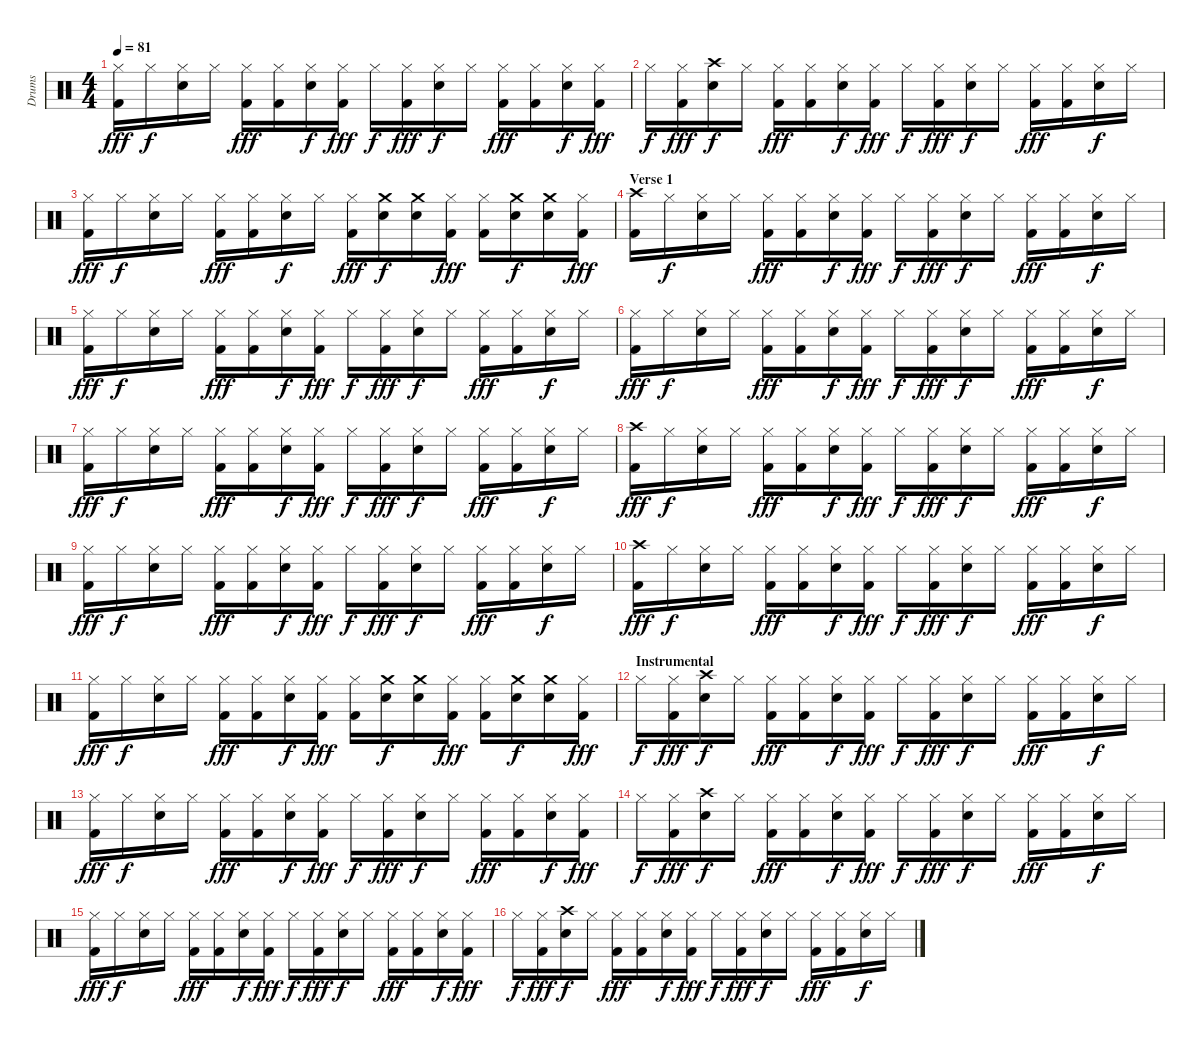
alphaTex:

\track ("Drums" "Drums") {instrument percussion}
\staff {score}
\articulation defaults
\ts (4 4)
\tempo 81
\clef neutral
\ks c
("Hi-Hat (closed)" "Kick (hit) 2").16{dy fff} "Hi-Hat (closed)".16{dy f} ("Hi-Hat (closed)" "Snare (hit) 2").16 "Hi-Hat (closed)".16 ("Hi-Hat (closed)" "Kick (hit) 2").16{dy fff} ("Hi-Hat (closed)" "Kick (hit) 2").16 ("Hi-Hat (closed)" "Snare (hit) 2").16{dy f} ("Hi-Hat (closed)" "Kick (hit) 2").16{dy fff} "Hi-Hat (closed)".16{dy f} ("Hi-Hat (closed)" "Kick (hit) 2").16{dy fff} ("Hi-Hat (closed)" "Snare (hit) 2").16{dy f} "Hi-Hat (closed)".16 ("Hi-Hat (closed)" "Kick (hit) 2").16{dy fff} ("Hi-Hat (closed)" "Kick (hit) 2").16 ("Hi-Hat (closed)" "Snare (hit) 2").16{dy f} ("Hi-Hat (closed)" "Kick (hit) 2").16{dy fff} |
"Hi-Hat (closed)".16{dy f} ("Hi-Hat (closed)" "Kick (hit) 2").16{dy fff} ("Crash high (hit)" "Snare (hit) 2").16{dy f} "Hi-Hat (closed)".16 ("Hi-Hat (closed)" "Kick (hit) 2").16{dy fff} ("Hi-Hat (closed)" "Kick (hit) 2").16 ("Hi-Hat (closed)" "Snare (hit) 2").16{dy f} ("Hi-Hat (closed)" "Kick (hit) 2").16{dy fff} "Hi-Hat (closed)".16{dy f} ("Hi-Hat (closed)" "Kick (hit) 2").16{dy fff} ("Hi-Hat (closed)" "Snare (hit) 2").16{dy f} "Hi-Hat (closed)".16 ("Hi-Hat (closed)" "Kick (hit) 2").16{dy fff} ("Hi-Hat (closed)" "Kick (hit) 2").16 ("Hi-Hat (closed)" "Snare (hit) 2").16{dy f} "Hi-Hat (closed)".16 |
("Hi-Hat (closed)" "Kick (hit) 2").16{dy fff} "Hi-Hat (closed)".16{dy f} ("Hi-Hat (closed)" "Snare (hit) 2").16 "Hi-Hat (closed)".16 ("Hi-Hat (closed)" "Kick (hit) 2").16{dy fff} ("Hi-Hat (closed)" "Kick (hit) 2").16 ("Hi-Hat (closed)" "Snare (hit) 2").16{dy f} "Hi-Hat (closed)".16 ("Hi-Hat (closed)" "Kick (hit) 2").16{dy fff} ("Crash medium (hit)" "Snare (hit) 2").16{dy f} ("Crash medium (hit)" "Snare (hit) 2").16 ("Hi-Hat (closed)" "Kick (hit) 2").16{dy fff} ("Hi-Hat (closed)" "Kick (hit) 2").16 ("Crash medium (hit)" "Snare (hit) 2").16{dy f} ("Crash medium (hit)" "Snare (hit) 2").16 ("Hi-Hat (closed)" "Kick (hit) 2").16{dy fff} |
\section ("" "Verse 1")
("Crash high (hit)" "Kick (hit) 2").16 "Hi-Hat (closed)".16{dy f} ("Hi-Hat (closed)" "Snare (hit) 2").16 "Hi-Hat (closed)".16 ("Hi-Hat (closed)" "Kick (hit) 2").16{dy fff} ("Hi-Hat (closed)" "Kick (hit) 2").16 ("Hi-Hat (closed)" "Snare (hit) 2").16{dy f} ("Hi-Hat (closed)" "Kick (hit) 2").16{dy fff} "Hi-Hat (closed)".16{dy f} ("Hi-Hat (closed)" "Kick (hit) 2").16{dy fff} ("Hi-Hat (closed)" "Snare (hit) 2").16{dy f} "Hi-Hat (closed)".16 ("Hi-Hat (closed)" "Kick (hit) 2").16{dy fff} ("Hi-Hat (closed)" "Kick (hit) 2").16 ("Hi-Hat (closed)" "Snare (hit) 2").16{dy f} "Hi-Hat (closed)".16 |
("Hi-Hat (closed)" "Kick (hit) 2").16{dy fff} "Hi-Hat (closed)".16{dy f} ("Hi-Hat (closed)" "Snare (hit) 2").16 "Hi-Hat (closed)".16 ("Hi-Hat (closed)" "Kick (hit) 2").16{dy fff} ("Hi-Hat (closed)" "Kick (hit) 2").16 ("Hi-Hat (closed)" "Snare (hit) 2").16{dy f} ("Hi-Hat (closed)" "Kick (hit) 2").16{dy fff} "Hi-Hat (closed)".16{dy f} ("Hi-Hat (closed)" "Kick (hit) 2").16{dy fff} ("Hi-Hat (closed)" "Snare (hit) 2").16{dy f} "Hi-Hat (closed)".16 ("Hi-Hat (closed)" "Kick (hit) 2").16{dy fff} ("Hi-Hat (closed)" "Kick (hit) 2").16 ("Hi-Hat (closed)" "Snare (hit) 2").16{dy f} "Hi-Hat (closed)".16 |
("Hi-Hat (closed)" "Kick (hit) 2").16{dy fff} "Hi-Hat (closed)".16{dy f} ("Hi-Hat (closed)" "Snare (hit) 2").16 "Hi-Hat (closed)".16 ("Hi-Hat (closed)" "Kick (hit) 2").16{dy fff} ("Hi-Hat (closed)" "Kick (hit) 2").16 ("Hi-Hat (closed)" "Snare (hit) 2").16{dy f} ("Hi-Hat (closed)" "Kick (hit) 2").16{dy fff} "Hi-Hat (closed)".16{dy f} ("Hi-Hat (closed)" "Kick (hit) 2").16{dy fff} ("Hi-Hat (closed)" "Snare (hit) 2").16{dy f} "Hi-Hat (closed)".16 ("Hi-Hat (closed)" "Kick (hit) 2").16{dy fff} ("Hi-Hat (closed)" "Kick (hit) 2").16 ("Hi-Hat (closed)" "Snare (hit) 2").16{dy f} "Hi-Hat (closed)".16 |
("Hi-Hat (closed)" "Kick (hit) 2").16{dy fff} "Hi-Hat (closed)".16{dy f} ("Hi-Hat (closed)" "Snare (hit) 2").16 "Hi-Hat (closed)".16 ("Hi-Hat (closed)" "Kick (hit) 2").16{dy fff} ("Hi-Hat (closed)" "Kick (hit) 2").16 ("Hi-Hat (closed)" "Snare (hit) 2").16{dy f} ("Hi-Hat (closed)" "Kick (hit) 2").16{dy fff} "Hi-Hat (closed)".16{dy f} ("Hi-Hat (closed)" "Kick (hit) 2").16{dy fff} ("Hi-Hat (closed)" "Snare (hit) 2").16{dy f} "Hi-Hat (closed)".16 ("Hi-Hat (closed)" "Kick (hit) 2").16{dy fff} ("Hi-Hat (closed)" "Kick (hit) 2").16 ("Hi-Hat (closed)" "Snare (hit) 2").16{dy f} "Hi-Hat (closed)".16 |
("Crash high (hit)" "Kick (hit) 2").16{dy fff} "Hi-Hat (closed)".16{dy f} ("Hi-Hat (closed)" "Snare (hit) 2").16 "Hi-Hat (closed)".16 ("Hi-Hat (closed)" "Kick (hit) 2").16{dy fff} ("Hi-Hat (closed)" "Kick (hit) 2").16 ("Hi-Hat (closed)" "Snare (hit) 2").16{dy f} ("Hi-Hat (closed)" "Kick (hit) 2").16{dy fff} "Hi-Hat (closed)".16{dy f} ("Hi-Hat (closed)" "Kick (hit) 2").16{dy fff} ("Hi-Hat (closed)" "Snare (hit) 2").16{dy f} "Hi-Hat (closed)".16 ("Hi-Hat (closed)" "Kick (hit) 2").16{dy fff} ("Hi-Hat (closed)" "Kick (hit) 2").16 ("Hi-Hat (closed)" "Snare (hit) 2").16{dy f} "Hi-Hat (closed)".16 |
("Hi-Hat (closed)" "Kick (hit) 2").16{dy fff} "Hi-Hat (closed)".16{dy f} ("Hi-Hat (closed)" "Snare (hit) 2").16 "Hi-Hat (closed)".16 ("Hi-Hat (closed)" "Kick (hit) 2").16{dy fff} ("Hi-Hat (closed)" "Kick (hit) 2").16 ("Hi-Hat (closed)" "Snare (hit) 2").16{dy f} ("Hi-Hat (closed)" "Kick (hit) 2").16{dy fff} "Hi-Hat (closed)".16{dy f} ("Hi-Hat (closed)" "Kick (hit) 2").16{dy fff} ("Hi-Hat (closed)" "Snare (hit) 2").16{dy f} "Hi-Hat (closed)".16 ("Hi-Hat (closed)" "Kick (hit) 2").16{dy fff} ("Hi-Hat (closed)" "Kick (hit) 2").16 ("Hi-Hat (closed)" "Snare (hit) 2").16{dy f} "Hi-Hat (closed)".16 |
("Crash high (hit)" "Kick (hit) 2").16{dy fff} "Hi-Hat (closed)".16{dy f} ("Hi-Hat (closed)" "Snare (hit) 2").16 "Hi-Hat (closed)".16 ("Hi-Hat (closed)" "Kick (hit) 2").16{dy fff} ("Hi-Hat (closed)" "Kick (hit) 2").16 ("Hi-Hat (closed)" "Snare (hit) 2").16{dy f} ("Hi-Hat (closed)" "Kick (hit) 2").16{dy fff} "Hi-Hat (closed)".16{dy f} ("Hi-Hat (closed)" "Kick (hit) 2").16{dy fff} ("Hi-Hat (closed)" "Snare (hit) 2").16{dy f} "Hi-Hat (closed)".16 ("Hi-Hat (closed)" "Kick (hit) 2").16{dy fff} ("Hi-Hat (closed)" "Kick (hit) 2").16 ("Hi-Hat (closed)" "Snare (hit) 2").16{dy f} "Hi-Hat (closed)".16 |
("Hi-Hat (closed)" "Kick (hit) 2").16{dy fff} "Hi-Hat (closed)".16{dy f} ("Hi-Hat (closed)" "Snare (hit) 2").16 "Hi-Hat (closed)".16 ("Hi-Hat (closed)" "Kick (hit) 2").16{dy fff} ("Hi-Hat (closed)" "Kick (hit) 2").16 ("Hi-Hat (closed)" "Snare (hit) 2").16{dy f} ("Hi-Hat (closed)" "Kick (hit) 2").16{dy fff} ("Hi-Hat (closed)" "Kick (hit) 2").16 ("Crash medium (hit)" "Snare (hit) 2").16{dy f} ("Crash medium (hit)" "Snare (hit) 2").16 ("Hi-Hat (closed)" "Kick (hit) 2").16{dy fff} ("Hi-Hat (closed)" "Kick (hit) 2").16 ("Crash medium (hit)" "Snare (hit) 2").16{dy f} ("Crash medium (hit)" "Snare (hit) 2").16 ("Hi-Hat (closed)" "Kick (hit) 2").16{dy fff} |
\section ("" "Instrumental")
"Hi-Hat (closed)".16{dy f} ("Hi-Hat (closed)" "Kick (hit) 2").16{dy fff} ("Crash high (hit)" "Snare (hit) 2").16{dy f} "Hi-Hat (closed)".16 ("Hi-Hat (closed)" "Kick (hit) 2").16{dy fff} ("Hi-Hat (closed)" "Kick (hit) 2").16 ("Hi-Hat (closed)" "Snare (hit) 2").16{dy f} ("Hi-Hat (closed)" "Kick (hit) 2").16{dy fff} "Hi-Hat (closed)".16{dy f} ("Hi-Hat (closed)" "Kick (hit) 2").16{dy fff} ("Hi-Hat (closed)" "Snare (hit) 2").16{dy f} "Hi-Hat (closed)".16 ("Hi-Hat (closed)" "Kick (hit) 2").16{dy fff} ("Hi-Hat (closed)" "Kick (hit) 2").16 ("Hi-Hat (closed)" "Snare (hit) 2").16{dy f} "Hi-Hat (closed)".16 |
("Hi-Hat (closed)" "Kick (hit) 2").16{dy fff} "Hi-Hat (closed)".16{dy f} ("Hi-Hat (closed)" "Snare (hit) 2").16 "Hi-Hat (closed)".16 ("Hi-Hat (closed)" "Kick (hit) 2").16{dy fff} ("Hi-Hat (closed)" "Kick (hit) 2").16 ("Hi-Hat (closed)" "Snare (hit) 2").16{dy f} ("Hi-Hat (closed)" "Kick (hit) 2").16{dy fff} "Hi-Hat (closed)".16{dy f} ("Hi-Hat (closed)" "Kick (hit) 2").16{dy fff} ("Hi-Hat (closed)" "Snare (hit) 2").16{dy f} "Hi-Hat (closed)".16 ("Hi-Hat (closed)" "Kick (hit) 2").16{dy fff} ("Hi-Hat (closed)" "Kick (hit) 2").16 ("Hi-Hat (closed)" "Snare (hit) 2").16{dy f} ("Hi-Hat (closed)" "Kick (hit) 2").16{dy fff} |
"Hi-Hat (closed)".16{dy f} ("Hi-Hat (closed)" "Kick (hit) 2").16{dy fff} ("Crash high (hit)" "Snare (hit) 2").16{dy f} "Hi-Hat (closed)".16 ("Hi-Hat (closed)" "Kick (hit) 2").16{dy fff} ("Hi-Hat (closed)" "Kick (hit) 2").16 ("Hi-Hat (closed)" "Snare (hit) 2").16{dy f} ("Hi-Hat (closed)" "Kick (hit) 2").16{dy fff} "Hi-Hat (closed)".16{dy f} ("Hi-Hat (closed)" "Kick (hit) 2").16{dy fff} ("Hi-Hat (closed)" "Snare (hit) 2").16{dy f} "Hi-Hat (closed)".16 ("Hi-Hat (closed)" "Kick (hit) 2").16{dy fff} ("Hi-Hat (closed)" "Kick (hit) 2").16 ("Hi-Hat (closed)" "Snare (hit) 2").16{dy f} "Hi-Hat (closed)".16 |
("Hi-Hat (closed)" "Kick (hit) 2").16{dy fff} "Hi-Hat (closed)".16{dy f} ("Hi-Hat (closed)" "Snare (hit) 2").16 "Hi-Hat (closed)".16 ("Hi-Hat (closed)" "Kick (hit) 2").16{dy fff} ("Hi-Hat (closed)" "Kick (hit) 2").16 ("Hi-Hat (closed)" "Snare (hit) 2").16{dy f} ("Hi-Hat (closed)" "Kick (hit) 2").16{dy fff} "Hi-Hat (closed)".16{dy f} ("Hi-Hat (closed)" "Kick (hit) 2").16{dy fff} ("Hi-Hat (closed)" "Snare (hit) 2").16{dy f} "Hi-Hat (closed)".16 ("Hi-Hat (closed)" "Kick (hit) 2").16{dy fff} ("Hi-Hat (closed)" "Kick (hit) 2").16 ("Hi-Hat (closed)" "Snare (hit) 2").16{dy f} ("Hi-Hat (closed)" "Kick (hit) 2").16{dy fff} |
"Hi-Hat (closed)".16{dy f} ("Hi-Hat (closed)" "Kick (hit) 2").16{dy fff} ("Crash high (hit)" "Snare (hit) 2").16{dy f} "Hi-Hat (closed)".16 ("Hi-Hat (closed)" "Kick (hit) 2").16{dy fff} ("Hi-Hat (closed)" "Kick (hit) 2").16 ("Hi-Hat (closed)" "Snare (hit) 2").16{dy f} ("Hi-Hat (closed)" "Kick (hit) 2").16{dy fff} "Hi-Hat (closed)".16{dy f} ("Hi-Hat (closed)" "Kick (hit) 2").16{dy fff} ("Hi-Hat (closed)" "Snare (hit) 2").16{dy f} "Hi-Hat (closed)".16 ("Hi-Hat (closed)" "Kick (hit) 2").16{dy fff} ("Hi-Hat (closed)" "Kick (hit) 2").16 ("Hi-Hat (closed)" "Snare (hit) 2").16{dy f} "Hi-Hat (closed)".16
